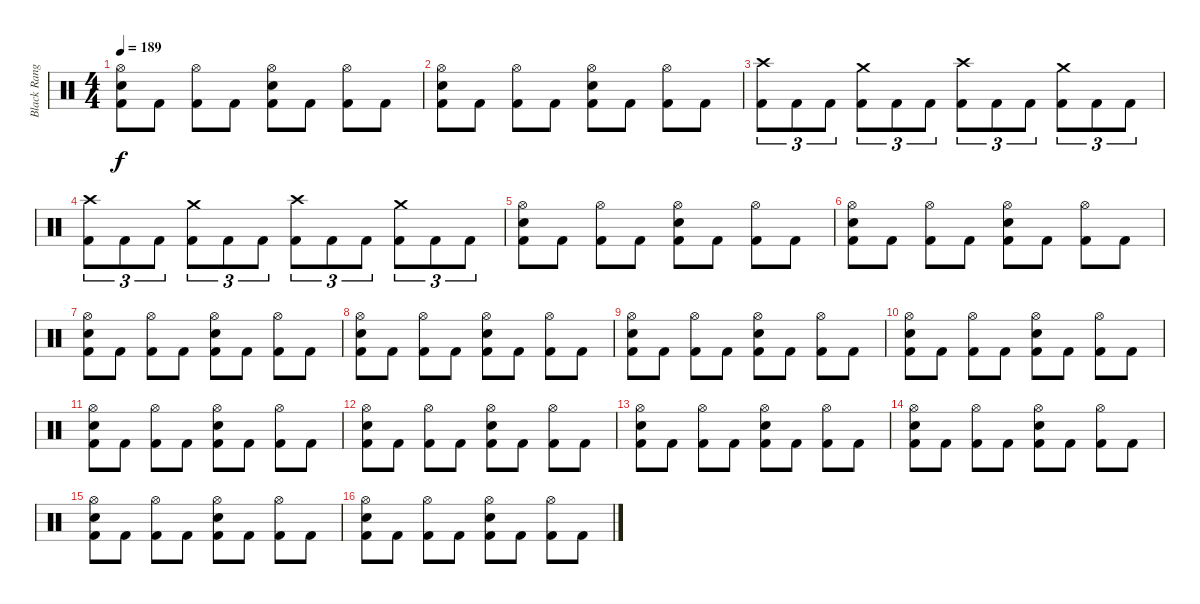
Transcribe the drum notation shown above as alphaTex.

\track ("Black Ranger (Drums)" "Black Rang") {instrument percussion}
\staff {score}
\articulation defaults
\ts (4 4)
\tempo 189
\clef neutral
\ks c
("Kick (hit) 2" "Snare (hit) 2" "Hi-Hat (open)").8{dy f} "Kick (hit) 2".8 ("Kick (hit) 2" "Hi-Hat (open)").8 "Kick (hit) 2".8 ("Kick (hit) 2" "Snare (hit) 2" "Hi-Hat (open)").8 "Kick (hit) 2".8 ("Kick (hit) 2" "Hi-Hat (open)").8 "Kick (hit) 2".8 |
("Kick (hit) 2" "Snare (hit) 2" "Hi-Hat (open)").8 "Kick (hit) 2".8 ("Kick (hit) 2" "Hi-Hat (open)").8 "Kick (hit) 2".8 ("Kick (hit) 2" "Snare (hit) 2" "Hi-Hat (open)").8 "Kick (hit) 2".8 ("Kick (hit) 2" "Hi-Hat (open)").8 "Kick (hit) 2".8 |
("Kick (hit) 2" "Crash high (hit)").8{tu (3 2)} "Kick (hit) 2".8{tu (3 2)} "Kick (hit) 2".8{tu (3 2)} ("Kick (hit) 2" "Crash medium (hit)").8{tu (3 2)} "Kick (hit) 2".8{tu (3 2)} "Kick (hit) 2".8{tu (3 2)} ("Kick (hit) 2" "Crash high (hit)").8{tu (3 2)} "Kick (hit) 2".8{tu (3 2)} "Kick (hit) 2".8{tu (3 2)} ("Kick (hit) 2" "Crash medium (hit)").8{tu (3 2)} "Kick (hit) 2".8{tu (3 2)} "Kick (hit) 2".8{tu (3 2)} |
("Kick (hit) 2" "Crash high (hit)").8{tu (3 2)} "Kick (hit) 2".8{tu (3 2)} "Kick (hit) 2".8{tu (3 2)} ("Kick (hit) 2" "Crash medium (hit)").8{tu (3 2)} "Kick (hit) 2".8{tu (3 2)} "Kick (hit) 2".8{tu (3 2)} ("Kick (hit) 2" "Crash high (hit)").8{tu (3 2)} "Kick (hit) 2".8{tu (3 2)} "Kick (hit) 2".8{tu (3 2)} ("Kick (hit) 2" "Crash medium (hit)").8{tu (3 2)} "Kick (hit) 2".8{tu (3 2)} "Kick (hit) 2".8{tu (3 2)} |
("Kick (hit) 2" "Snare (hit) 2" "Hi-Hat (open)").8 "Kick (hit) 2".8 ("Kick (hit) 2" "Hi-Hat (open)").8 "Kick (hit) 2".8 ("Kick (hit) 2" "Snare (hit) 2" "Hi-Hat (open)").8 "Kick (hit) 2".8 ("Kick (hit) 2" "Hi-Hat (open)").8 "Kick (hit) 2".8 |
("Kick (hit) 2" "Snare (hit) 2" "Hi-Hat (open)").8 "Kick (hit) 2".8 ("Kick (hit) 2" "Hi-Hat (open)").8 "Kick (hit) 2".8 ("Kick (hit) 2" "Snare (hit) 2" "Hi-Hat (open)").8 "Kick (hit) 2".8 ("Kick (hit) 2" "Hi-Hat (open)").8 "Kick (hit) 2".8 |
("Kick (hit) 2" "Snare (hit) 2" "Hi-Hat (open)").8 "Kick (hit) 2".8 ("Kick (hit) 2" "Hi-Hat (open)").8 "Kick (hit) 2".8 ("Kick (hit) 2" "Snare (hit) 2" "Hi-Hat (open)").8 "Kick (hit) 2".8 ("Kick (hit) 2" "Hi-Hat (open)").8 "Kick (hit) 2".8 |
("Kick (hit) 2" "Snare (hit) 2" "Hi-Hat (open)").8 "Kick (hit) 2".8 ("Kick (hit) 2" "Hi-Hat (open)").8 "Kick (hit) 2".8 ("Kick (hit) 2" "Snare (hit) 2" "Hi-Hat (open)").8 "Kick (hit) 2".8 ("Kick (hit) 2" "Hi-Hat (open)").8 "Kick (hit) 2".8 |
("Kick (hit) 2" "Snare (hit) 2" "Hi-Hat (open)").8 "Kick (hit) 2".8 ("Kick (hit) 2" "Hi-Hat (open)").8 "Kick (hit) 2".8 ("Kick (hit) 2" "Snare (hit) 2" "Hi-Hat (open)").8 "Kick (hit) 2".8 ("Kick (hit) 2" "Hi-Hat (open)").8 "Kick (hit) 2".8 |
("Kick (hit) 2" "Snare (hit) 2" "Hi-Hat (open)").8 "Kick (hit) 2".8 ("Kick (hit) 2" "Hi-Hat (open)").8 "Kick (hit) 2".8 ("Kick (hit) 2" "Snare (hit) 2" "Hi-Hat (open)").8 "Kick (hit) 2".8 ("Kick (hit) 2" "Hi-Hat (open)").8 "Kick (hit) 2".8 |
("Kick (hit) 2" "Snare (hit) 2" "Hi-Hat (open)").8 "Kick (hit) 2".8 ("Kick (hit) 2" "Hi-Hat (open)").8 "Kick (hit) 2".8 ("Kick (hit) 2" "Snare (hit) 2" "Hi-Hat (open)").8 "Kick (hit) 2".8 ("Kick (hit) 2" "Hi-Hat (open)").8 "Kick (hit) 2".8 |
("Kick (hit) 2" "Snare (hit) 2" "Hi-Hat (open)").8 "Kick (hit) 2".8 ("Kick (hit) 2" "Hi-Hat (open)").8 "Kick (hit) 2".8 ("Kick (hit) 2" "Snare (hit) 2" "Hi-Hat (open)").8 "Kick (hit) 2".8 ("Kick (hit) 2" "Hi-Hat (open)").8 "Kick (hit) 2".8 |
("Kick (hit) 2" "Snare (hit) 2" "Hi-Hat (open)").8 "Kick (hit) 2".8 ("Kick (hit) 2" "Hi-Hat (open)").8 "Kick (hit) 2".8 ("Kick (hit) 2" "Snare (hit) 2" "Hi-Hat (open)").8 "Kick (hit) 2".8 ("Kick (hit) 2" "Hi-Hat (open)").8 "Kick (hit) 2".8 |
("Kick (hit) 2" "Snare (hit) 2" "Hi-Hat (open)").8 "Kick (hit) 2".8 ("Kick (hit) 2" "Hi-Hat (open)").8 "Kick (hit) 2".8 ("Kick (hit) 2" "Snare (hit) 2" "Hi-Hat (open)").8 "Kick (hit) 2".8 ("Kick (hit) 2" "Hi-Hat (open)").8 "Kick (hit) 2".8 |
("Kick (hit) 2" "Snare (hit) 2" "Hi-Hat (open)").8 "Kick (hit) 2".8 ("Kick (hit) 2" "Hi-Hat (open)").8 "Kick (hit) 2".8 ("Kick (hit) 2" "Snare (hit) 2" "Hi-Hat (open)").8 "Kick (hit) 2".8 ("Kick (hit) 2" "Hi-Hat (open)").8 "Kick (hit) 2".8 |
("Kick (hit) 2" "Snare (hit) 2" "Hi-Hat (open)").8 "Kick (hit) 2".8 ("Kick (hit) 2" "Hi-Hat (open)").8 "Kick (hit) 2".8 ("Kick (hit) 2" "Snare (hit) 2" "Hi-Hat (open)").8 "Kick (hit) 2".8 ("Kick (hit) 2" "Hi-Hat (open)").8 "Kick (hit) 2".8
